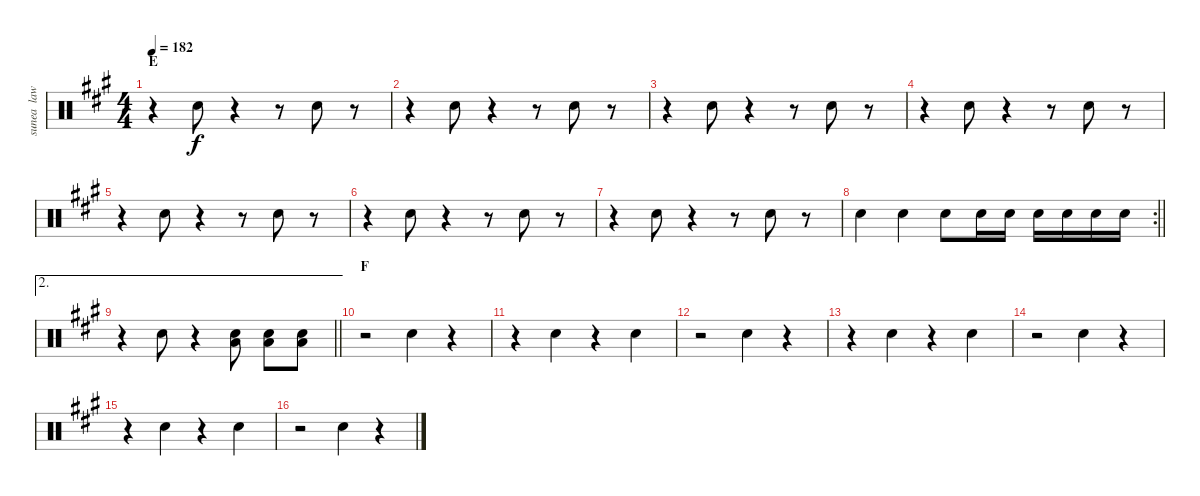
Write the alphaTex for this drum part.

\track ("sunea  law tam" "sunea  law") {instrument percussion}
\staff {score}
\articulation defaults
\ts (4 4)
\section ("" "E")
\tempo 182
\clef neutral
\ks f#minor
r.4{dy f} "Snare (hit) 2".8 r.4 r.8 "Snare (hit) 2".8 r.8 |
r.4 "Snare (hit) 2".8 r.4 r.8 "Snare (hit) 2".8 r.8 |
r.4 "Snare (hit) 2".8 r.4 r.8 "Snare (hit) 2".8 r.8 |
r.4 "Snare (hit) 2".8 r.4 r.8 "Snare (hit) 2".8 r.8 |
r.4 "Snare (hit) 2".8 r.4 r.8 "Snare (hit) 2".8 r.8 |
r.4 "Snare (hit) 2".8 r.4 r.8 "Snare (hit) 2".8 r.8 |
r.4 "Snare (hit) 2".8 r.4 r.8 "Snare (hit) 2".8 r.8 |
\rc 2
\barLineRight lightlight "Snare (hit) 2".4 "Snare (hit) 2".4 "Snare (hit) 2".8 "Snare (hit) 2".16 "Snare (hit) 2".16 "Snare (hit) 2".16 "Snare (hit) 2".16 "Snare (hit) 2".16 "Snare (hit) 2".16
|
\ae 2
\barLineRight lightlight
r.4 "Snare (hit) 2".8 r.4 ("Snare (hit) 2" "Low Tom (hit)").8 ("Snare (hit) 2" "Low Tom (hit)").8 ("Snare (hit) 2" "Low Tom (hit)").8 |
\section ("" "F")
r.2 "Snare (hit) 2".4 r.4 |
r.4 "Snare (hit) 2".4 r.4 "Snare (hit) 2".4 |
r.2 "Snare (hit) 2".4 r.4 |
r.4 "Snare (hit) 2".4 r.4 "Snare (hit) 2".4 |
r.2 "Snare (hit) 2".4 r.4 |
r.4 "Snare (hit) 2".4 r.4 "Snare (hit) 2".4 |
r.2 "Snare (hit) 2".4 r.4
